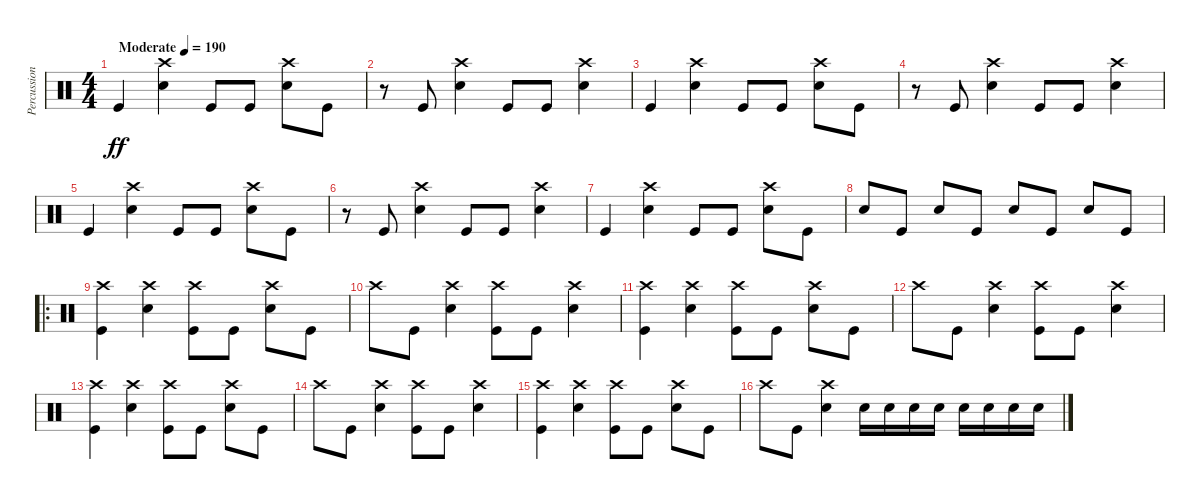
\track ("Percussions" "Percussion") {instrument percussion}
\staff {score}
\articulation defaults
\ts (4 4)
\tempo (190 "Moderate")
\clef neutral
\ks c "Kick (hit)".4{dy ff}
("Crash high (hit)" "Electric Snare (hit)").4 "Kick (hit)".8 "Kick (hit)".8 ("Crash high (hit)" "Electric Snare (hit)").8 "Kick (hit)".8 |
r.8 "Kick (hit)".8 ("Crash high (hit)" "Electric Snare (hit)").4 "Kick (hit)".8 "Kick (hit)".8 ("Crash high (hit)" "Electric Snare (hit)").4 |
"Kick (hit)".4 ("Crash high (hit)" "Electric Snare (hit)").4 "Kick (hit)".8 "Kick (hit)".8 ("Crash high (hit)" "Electric Snare (hit)").8 "Kick (hit)".8 |
r.8 "Kick (hit)".8 ("Crash high (hit)" "Electric Snare (hit)").4 "Kick (hit)".8 "Kick (hit)".8 ("Crash high (hit)" "Electric Snare (hit)").4 |
"Kick (hit)".4 ("Crash high (hit)" "Electric Snare (hit)").4 "Kick (hit)".8 "Kick (hit)".8 ("Crash high (hit)" "Electric Snare (hit)").8 "Kick (hit)".8 |
r.8 "Kick (hit)".8 ("Crash high (hit)" "Electric Snare (hit)").4 "Kick (hit)".8 "Kick (hit)".8 ("Crash high (hit)" "Electric Snare (hit)").4 |
"Kick (hit)".4 ("Crash high (hit)" "Electric Snare (hit)").4 "Kick (hit)".8 "Kick (hit)".8 ("Crash high (hit)" "Electric Snare (hit)").8 "Kick (hit)".8 |
"Electric Snare (hit)".8 "Kick (hit)".8 "Electric Snare (hit)".8 "Kick (hit)".8 "Electric Snare (hit)".8 "Kick (hit)".8 "Electric Snare (hit)".8 "Kick (hit)".8 |
\ro
("Crash high (hit)" "Kick (hit)").4 ("Crash high (hit)" "Electric Snare (hit)").4 ("Crash high (hit)" "Kick (hit)").8 "Kick (hit)".8 ("Crash high (hit)" "Electric Snare (hit)").8 "Kick (hit)".8 |
"Crash high (hit)".8 "Kick (hit)".8 ("Crash high (hit)" "Electric Snare (hit)").4 ("Crash high (hit)" "Kick (hit)").8 "Kick (hit)".8 ("Crash high (hit)" "Electric Snare (hit)").4 |
("Crash high (hit)" "Kick (hit)").4 ("Crash high (hit)" "Electric Snare (hit)").4 ("Crash high (hit)" "Kick (hit)").8 "Kick (hit)".8 ("Crash high (hit)" "Electric Snare (hit)").8 "Kick (hit)".8 |
"Crash high (hit)".8 "Kick (hit)".8 ("Crash high (hit)" "Electric Snare (hit)").4 ("Crash high (hit)" "Kick (hit)").8 "Kick (hit)".8 ("Crash high (hit)" "Electric Snare (hit)").4 |
("Crash high (hit)" "Kick (hit)").4 ("Crash high (hit)" "Electric Snare (hit)").4 ("Crash high (hit)" "Kick (hit)").8 "Kick (hit)".8 ("Crash high (hit)" "Electric Snare (hit)").8 "Kick (hit)".8 |
"Crash high (hit)".8 "Kick (hit)".8 ("Crash high (hit)" "Electric Snare (hit)").4 ("Crash high (hit)" "Kick (hit)").8 "Kick (hit)".8 ("Crash high (hit)" "Electric Snare (hit)").4 |
("Crash high (hit)" "Kick (hit)").4 ("Crash high (hit)" "Electric Snare (hit)").4 ("Crash high (hit)" "Kick (hit)").8 "Kick (hit)".8 ("Crash high (hit)" "Electric Snare (hit)").8 "Kick (hit)".8 |
"Crash high (hit)".8 "Kick (hit)".8 ("Crash high (hit)" "Electric Snare (hit)").4 "Electric Snare (hit)".16 "Electric Snare (hit)".16 "Electric Snare (hit)".16 "Electric Snare (hit)".16 "Electric Snare (hit)".16 "Electric Snare (hit)".16 "Electric Snare (hit)".16 "Electric Snare (hit)".16
